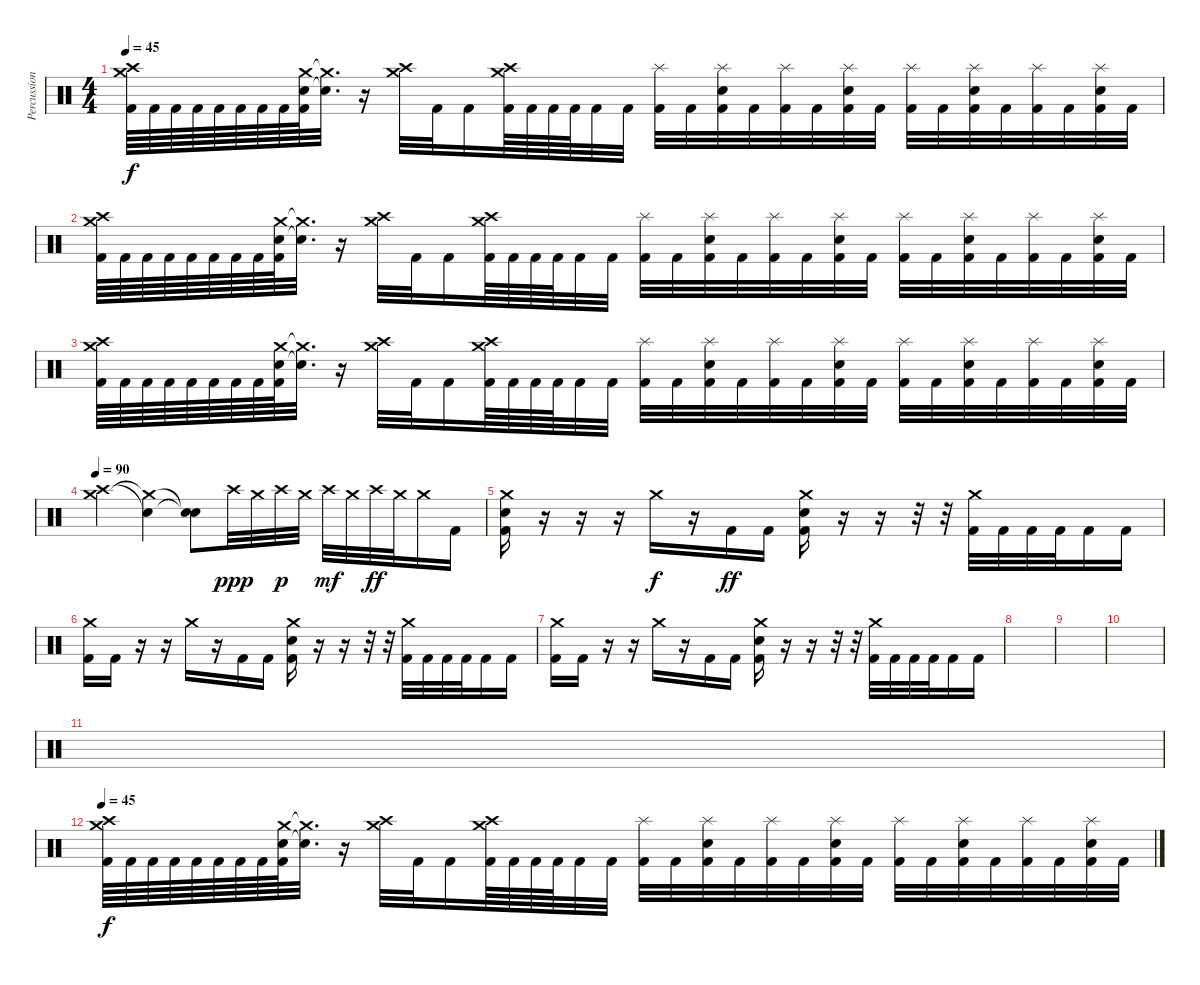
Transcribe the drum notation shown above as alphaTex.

\track ("Percussion" "Percussion") {instrument percussion}
\staff {score}
\articulation defaults
\ts (4 4)
\tempo 45
\clef neutral
\ks c
("Crash medium (hit)" "Crash high (hit)" "Kick (hit) 2").64{dy f} "Kick (hit) 2".64 "Kick (hit) 2".64 "Kick (hit) 2".64 "Kick (hit) 2".64 "Kick (hit) 2".64 "Kick (hit) 2".64 "Kick (hit) 2".64 ("Crash medium (hit)" "Snare (hit) 2" "Kick (hit) 2").64 ("Crash medium (hit)"{t} "Snare (hit) 2"{t}).32{d} r.16 ("Crash medium (hit)" "Crash high (hit)").32 "Kick (hit) 2".32 "Kick (hit) 2".16 ("Crash medium (hit)" "Crash high (hit)" "Kick (hit) 2").64 "Kick (hit) 2".64 "Kick (hit) 2".64 "Kick (hit) 2".64 "Kick (hit) 2".32 "Kick (hit) 2".32 ("Splash (hit)" "Kick (hit) 2").32 "Kick (hit) 2".32 ("Splash (hit)" "Snare (hit) 2" "Kick (hit) 2").32 "Kick (hit) 2".32 ("Splash (hit)" "Kick (hit) 2").32 "Kick (hit) 2".32 ("Splash (hit)" "Snare (hit) 2" "Kick (hit) 2").32 "Kick (hit) 2".32 ("Splash (hit)" "Kick (hit) 2").32 "Kick (hit) 2".32 ("Splash (hit)" "Snare (hit) 2" "Kick (hit) 2").32 "Kick (hit) 2".32 ("Splash (hit)" "Kick (hit) 2").32 "Kick (hit) 2".32 ("Splash (hit)" "Snare (hit) 2" "Kick (hit) 2").32 "Kick (hit) 2".32 |
("Crash medium (hit)" "Crash high (hit)" "Kick (hit) 2").64 "Kick (hit) 2".64 "Kick (hit) 2".64 "Kick (hit) 2".64 "Kick (hit) 2".64 "Kick (hit) 2".64 "Kick (hit) 2".64 "Kick (hit) 2".64 ("Crash medium (hit)" "Snare (hit) 2" "Kick (hit) 2").64 ("Crash medium (hit)"{t} "Snare (hit) 2"{t}).32{d} r.16 ("Crash medium (hit)" "Crash high (hit)").32 "Kick (hit) 2".32 "Kick (hit) 2".16 ("Crash medium (hit)" "Crash high (hit)" "Kick (hit) 2").64 "Kick (hit) 2".64 "Kick (hit) 2".64 "Kick (hit) 2".64 "Kick (hit) 2".32 "Kick (hit) 2".32 ("Splash (hit)" "Kick (hit) 2").32 "Kick (hit) 2".32 ("Splash (hit)" "Snare (hit) 2" "Kick (hit) 2").32 "Kick (hit) 2".32 ("Splash (hit)" "Kick (hit) 2").32 "Kick (hit) 2".32 ("Splash (hit)" "Snare (hit) 2" "Kick (hit) 2").32 "Kick (hit) 2".32 ("Splash (hit)" "Kick (hit) 2").32 "Kick (hit) 2".32 ("Splash (hit)" "Snare (hit) 2" "Kick (hit) 2").32 "Kick (hit) 2".32 ("Splash (hit)" "Kick (hit) 2").32 "Kick (hit) 2".32 ("Splash (hit)" "Snare (hit) 2" "Kick (hit) 2").32 "Kick (hit) 2".32 |
("Crash medium (hit)" "Crash high (hit)" "Kick (hit) 2").64 "Kick (hit) 2".64 "Kick (hit) 2".64 "Kick (hit) 2".64 "Kick (hit) 2".64 "Kick (hit) 2".64 "Kick (hit) 2".64 "Kick (hit) 2".64 ("Crash medium (hit)" "Snare (hit) 2" "Kick (hit) 2").64 ("Crash medium (hit)"{t} "Snare (hit) 2"{t}).32{d} r.16 ("Crash medium (hit)" "Crash high (hit)").32 "Kick (hit) 2".32 "Kick (hit) 2".16 ("Crash medium (hit)" "Crash high (hit)" "Kick (hit) 2").64 "Kick (hit) 2".64 "Kick (hit) 2".64 "Kick (hit) 2".64 "Kick (hit) 2".32 "Kick (hit) 2".32 ("Splash (hit)" "Kick (hit) 2").32 "Kick (hit) 2".32 ("Splash (hit)" "Snare (hit) 2" "Kick (hit) 2").32 "Kick (hit) 2".32 ("Splash (hit)" "Kick (hit) 2").32 "Kick (hit) 2".32 ("Splash (hit)" "Snare (hit) 2" "Kick (hit) 2").32 "Kick (hit) 2".32 ("Splash (hit)" "Kick (hit) 2").32 "Kick (hit) 2".32 ("Splash (hit)" "Snare (hit) 2" "Kick (hit) 2").32 "Kick (hit) 2".32 ("Splash (hit)" "Kick (hit) 2").32 "Kick (hit) 2".32 ("Splash (hit)" "Snare (hit) 2" "Kick (hit) 2").32 "Kick (hit) 2".32 |
\tempo 90
("Crash medium (hit)" "Crash high (hit)").4 ("Crash medium (hit)"{t} "Snare (hit)"{t}).4 ("Snare (hit)"{t} "Snare (hit)"{t}).8 "Crash high (hit)".32{dy ppp} "Crash medium (hit)".32 "Crash high (hit)".32{dy p} "Crash medium (hit)".32 "Crash high (hit)".32{dy mf} "Crash medium (hit)".32 "Crash high (hit)".32{dy ff} "Crash medium (hit)".32 "Crash medium (hit)".16 "Kick (hit) 2".16 |
("Crash medium (hit)" "Snare (hit) 2" "Kick (hit) 2").16 r.16 r.16 r.16 "Crash medium (hit)".16{dy f} r.16 "Kick (hit) 2".16{dy ff} "Kick (hit) 2".16 ("Crash medium (hit)" "Snare (hit) 2" "Kick (hit) 2").16 r.16 r.16 r.32 r.32 ("Crash medium (hit)" "Kick (hit) 2").32 "Kick (hit) 2".32 "Kick (hit) 2".32 "Kick (hit) 2".32 "Kick (hit) 2".16 "Kick (hit) 2".16 |
("Crash medium (hit)" "Kick (hit) 2").16 "Kick (hit) 2".16 r.16 r.16 "Crash medium (hit)".16 r.16 "Kick (hit) 2".16 "Kick (hit) 2".16 ("Crash medium (hit)" "Snare (hit) 2" "Kick (hit) 2").16 r.16 r.16 r.32 r.32 ("Crash medium (hit)" "Kick (hit) 2").32 "Kick (hit) 2".32 "Kick (hit) 2".32 "Kick (hit) 2".32 "Kick (hit) 2".16 "Kick (hit) 2".16 |
("Crash medium (hit)" "Kick (hit) 2").16 "Kick (hit) 2".16 r.16 r.16 "Crash medium (hit)".16 r.16 "Kick (hit) 2".16 "Kick (hit) 2".16 ("Crash medium (hit)" "Snare (hit) 2" "Kick (hit) 2").16 r.16 r.16 r.32 r.32 ("Crash medium (hit)" "Kick (hit) 2").32 "Kick (hit) 2".32 "Kick (hit) 2".32 "Kick (hit) 2".32 "Kick (hit) 2".16 "Kick (hit) 2".16 |
|
|
|
|
\tempo 45
("Crash medium (hit)" "Crash high (hit)" "Kick (hit) 2").64{dy f} "Kick (hit) 2".64 "Kick (hit) 2".64 "Kick (hit) 2".64 "Kick (hit) 2".64 "Kick (hit) 2".64 "Kick (hit) 2".64 "Kick (hit) 2".64 ("Crash medium (hit)" "Snare (hit) 2" "Kick (hit) 2").64 ("Crash medium (hit)"{t} "Snare (hit) 2"{t}).32{d} r.16 ("Crash medium (hit)" "Crash high (hit)").32 "Kick (hit) 2".32 "Kick (hit) 2".16 ("Crash medium (hit)" "Crash high (hit)" "Kick (hit) 2").64 "Kick (hit) 2".64 "Kick (hit) 2".64 "Kick (hit) 2".64 "Kick (hit) 2".32 "Kick (hit) 2".32 ("Splash (hit)" "Kick (hit) 2").32 "Kick (hit) 2".32 ("Splash (hit)" "Snare (hit) 2" "Kick (hit) 2").32 "Kick (hit) 2".32 ("Splash (hit)" "Kick (hit) 2").32 "Kick (hit) 2".32 ("Splash (hit)" "Snare (hit) 2" "Kick (hit) 2").32 "Kick (hit) 2".32 ("Splash (hit)" "Kick (hit) 2").32 "Kick (hit) 2".32 ("Splash (hit)" "Snare (hit) 2" "Kick (hit) 2").32 "Kick (hit) 2".32 ("Splash (hit)" "Kick (hit) 2").32 "Kick (hit) 2".32 ("Splash (hit)" "Snare (hit) 2" "Kick (hit) 2").32 "Kick (hit) 2".32
